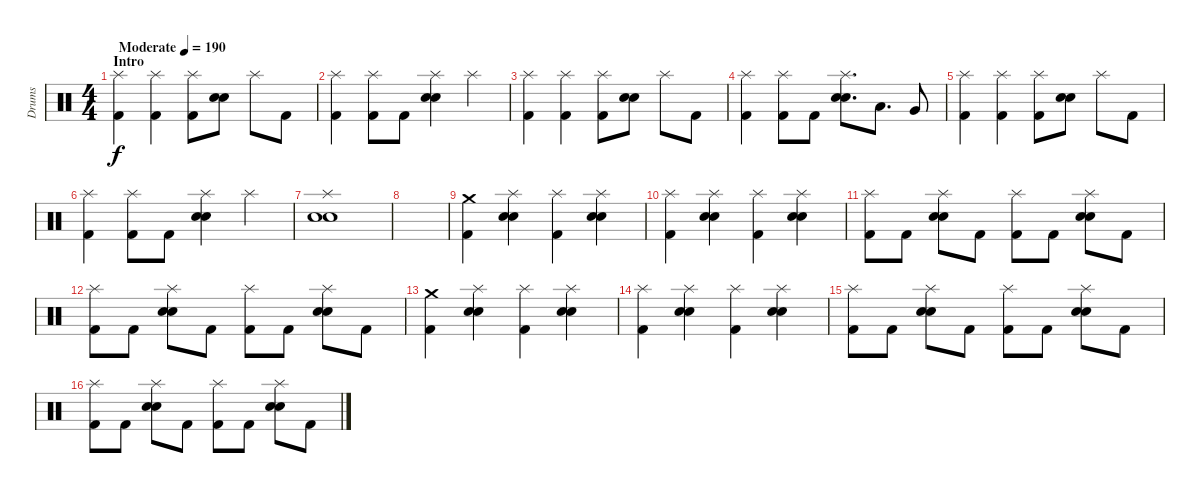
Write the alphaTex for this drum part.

\track ("Drums" "Drums") {instrument percussion}
\staff
\articulation defaults
\ts (4 4)
\section ("" "Intro")
\tempo (190 "Moderate")
\clef neutral
\ks c
("Splash (hit)" "Kick (hit) 2").4{dy f} ("Splash (hit)" "Kick (hit) 2").4 ("Splash (hit)" "Kick (hit) 2").8 ("Electric Snare (hit)" "Snare (hit) 2").8 "Splash (hit)".8 "Kick (hit) 2".8 |
("Splash (hit)" "Kick (hit) 2").4 ("Splash (hit)" "Kick (hit) 2").8 "Kick (hit) 2".8 ("Splash (hit)" "Electric Snare (hit)" "Snare (hit) 2").4 "Splash (hit)".4 |
("Splash (hit)" "Kick (hit) 2").4 ("Splash (hit)" "Kick (hit) 2").4 ("Splash (hit)" "Kick (hit) 2").8 ("Electric Snare (hit)" "Snare (hit) 2").8 "Splash (hit)".8 "Kick (hit) 2".8 |
("Splash (hit)" "Kick (hit) 2").4 ("Splash (hit)" "Kick (hit) 2").8 "Kick (hit) 2".8 ("Splash (hit)" "Electric Snare (hit)" "Snare (hit) 2").8{d} "Low Tom (hit)".8{d} "Very Low Tom (hit)".8 |
("Splash (hit)" "Kick (hit) 2").4 ("Splash (hit)" "Kick (hit) 2").4 ("Splash (hit)" "Kick (hit) 2").8 ("Electric Snare (hit)" "Snare (hit) 2").8 "Splash (hit)".8 "Kick (hit) 2".8 |
("Splash (hit)" "Kick (hit) 2").4 ("Splash (hit)" "Kick (hit) 2").8 "Kick (hit) 2".8 ("Splash (hit)" "Electric Snare (hit)" "Snare (hit) 2").4 "Splash (hit)".4 |
("Splash (hit)" "Electric Snare (hit)" "Snare (hit) 2").1 |
|
("Crash medium (hit)" "Kick (hit) 2").4 ("Splash (hit)" "Electric Snare (hit)" "Snare (hit) 2").4 ("Splash (hit)" "Kick (hit) 2").4 ("Splash (hit)" "Electric Snare (hit)" "Snare (hit) 2").4 |
("Splash (hit)" "Kick (hit) 2").4 ("Splash (hit)" "Electric Snare (hit)" "Snare (hit) 2").4 ("Splash (hit)" "Kick (hit) 2").4 ("Splash (hit)" "Electric Snare (hit)" "Snare (hit) 2").4 |
("Splash (hit)" "Kick (hit) 2").8 "Kick (hit) 2".8 ("Splash (hit)" "Electric Snare (hit)" "Snare (hit) 2").8 "Kick (hit) 2".8 ("Splash (hit)" "Kick (hit) 2").8 "Kick (hit) 2".8 ("Splash (hit)" "Electric Snare (hit)" "Snare (hit) 2").8 "Kick (hit) 2".8 |
("Splash (hit)" "Kick (hit) 2").8 "Kick (hit) 2".8 ("Splash (hit)" "Electric Snare (hit)" "Snare (hit) 2").8 "Kick (hit) 2".8 ("Splash (hit)" "Kick (hit) 2").8 "Kick (hit) 2".8 ("Splash (hit)" "Electric Snare (hit)" "Snare (hit) 2").8 "Kick (hit) 2".8 |
("Crash medium (hit)" "Kick (hit) 2").4 ("Splash (hit)" "Electric Snare (hit)" "Snare (hit) 2").4 ("Splash (hit)" "Kick (hit) 2").4 ("Splash (hit)" "Electric Snare (hit)" "Snare (hit) 2").4 |
("Splash (hit)" "Kick (hit) 2").4 ("Splash (hit)" "Electric Snare (hit)" "Snare (hit) 2").4 ("Splash (hit)" "Kick (hit) 2").4 ("Splash (hit)" "Electric Snare (hit)" "Snare (hit) 2").4 |
("Splash (hit)" "Kick (hit) 2").8 "Kick (hit) 2".8 ("Splash (hit)" "Electric Snare (hit)" "Snare (hit) 2").8 "Kick (hit) 2".8 ("Splash (hit)" "Kick (hit) 2").8 "Kick (hit) 2".8 ("Splash (hit)" "Electric Snare (hit)" "Snare (hit) 2").8 "Kick (hit) 2".8 |
("Splash (hit)" "Kick (hit) 2").8 "Kick (hit) 2".8 ("Splash (hit)" "Electric Snare (hit)" "Snare (hit) 2").8 "Kick (hit) 2".8 ("Splash (hit)" "Kick (hit) 2").8 "Kick (hit) 2".8 ("Splash (hit)" "Electric Snare (hit)" "Snare (hit) 2").8 "Kick (hit) 2".8
